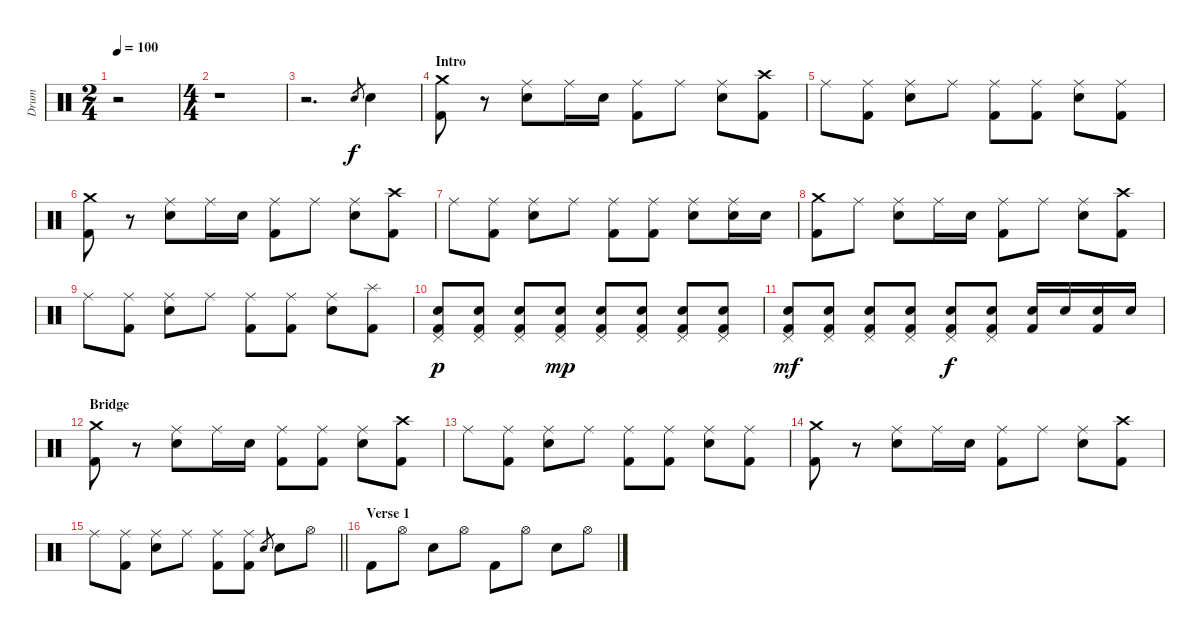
\track ("Drum" "Drum") {instrument percussion}
\staff {score}
\articulation defaults
\ts (2 4)
\tempo 100
\clef neutral
\ks c
r.2{dy f} |
\ts (4 4)
r.1 |
r.2{d} "Snare (hit) 2".8{gr} "Snare (hit) 2".4 |
\section ("" "Intro")
("Crash medium (hit)" "Kick (hit) 2").8 r.8 ("Ride (middle)" "Snare (hit) 2").8 "Ride (middle)".16 "Snare (hit) 2".16 ("Ride (middle)" "Kick (hit) 2").8 "Ride (middle)".8 ("Ride (middle)" "Snare (hit) 2").8 ("Crash high (hit)" "Kick (hit) 2").8 |
"Ride (middle)".8 ("Ride (middle)" "Kick (hit) 2").8 ("Ride (middle)" "Snare (hit) 2").8 "Ride (middle)".8 ("Ride (middle)" "Kick (hit) 2").8 ("Ride (middle)" "Kick (hit) 2").8 ("Ride (middle)" "Snare (hit) 2").8 ("Ride (middle)" "Kick (hit) 2").8 |
("Crash medium (hit)" "Kick (hit) 2").8 r.8 ("Ride (middle)" "Snare (hit) 2").8 "Ride (middle)".16 "Snare (hit) 2".16 ("Ride (middle)" "Kick (hit) 2").8 "Ride (middle)".8 ("Ride (middle)" "Snare (hit) 2").8 ("Crash high (hit)" "Kick (hit) 2").8 |
"Ride (middle)".8 ("Ride (middle)" "Kick (hit) 2").8 ("Ride (middle)" "Snare (hit) 2").8 "Ride (middle)".8 ("Ride (middle)" "Kick (hit) 2").8 ("Ride (middle)" "Kick (hit) 2").8 ("Ride (middle)" "Snare (hit) 2").8 ("Ride (middle)" "Snare (hit) 2").16 "Snare (hit) 2".16 |
("Crash medium (hit)" "Kick (hit) 2").8 "Ride (middle)".8 ("Ride (middle)" "Snare (hit) 2").8 "Ride (middle)".16 "Snare (hit) 2".16 ("Ride (middle)" "Kick (hit) 2").8 "Ride (middle)".8 ("Ride (middle)" "Snare (hit) 2").8 ("Crash high (hit)" "Kick (hit) 2").8 |
"Ride (middle)".8 ("Ride (middle)" "Kick (hit) 2").8 ("Ride (middle)" "Snare (hit) 2").8 "Ride (middle)".8 ("Ride (middle)" "Kick (hit) 2").8 ("Ride (middle)" "Kick (hit) 2").8 ("Ride (middle)" "Snare (hit) 2").8 ("Splash (hit)" "Kick (hit) 2").8 |
("Pedal Hi-Hat (hit)" "Snare (hit) 2" "Kick (hit) 2").8{dy p} ("Pedal Hi-Hat (hit)" "Snare (hit) 2" "Kick (hit) 2").8 ("Pedal Hi-Hat (hit)" "Snare (hit) 2" "Kick (hit) 2").8 ("Pedal Hi-Hat (hit)" "Snare (hit) 2" "Kick (hit) 2").8{dy mp} ("Pedal Hi-Hat (hit)" "Snare (hit) 2" "Kick (hit) 2").8 ("Pedal Hi-Hat (hit)" "Snare (hit) 2" "Kick (hit) 2").8 ("Pedal Hi-Hat (hit)" "Snare (hit) 2" "Kick (hit) 2").8 ("Pedal Hi-Hat (hit)" "Snare (hit) 2" "Kick (hit) 2").8 |
("Pedal Hi-Hat (hit)" "Snare (hit) 2" "Kick (hit) 2").8{dy mf} ("Pedal Hi-Hat (hit)" "Snare (hit) 2" "Kick (hit) 2").8 ("Pedal Hi-Hat (hit)" "Snare (hit) 2" "Kick (hit) 2").8 ("Pedal Hi-Hat (hit)" "Snare (hit) 2" "Kick (hit) 2").8 ("Pedal Hi-Hat (hit)" "Snare (hit) 2" "Kick (hit) 2").8{dy f} ("Pedal Hi-Hat (hit)" "Snare (hit) 2" "Kick (hit) 2").8 ("Snare (hit) 2" "Kick (hit) 2").16 "Snare (hit) 2".16 ("Snare (hit) 2" "Kick (hit) 2").16 "Snare (hit) 2".16 |
\section ("" "Bridge")
("Crash medium (hit)" "Kick (hit) 2").8 r.8 ("Ride (middle)" "Snare (hit) 2").8 "Ride (middle)".16 "Snare (hit) 2".16 ("Ride (middle)" "Kick (hit) 2").8 ("Ride (middle)" "Kick (hit) 2").8 ("Ride (middle)" "Snare (hit) 2").8 ("Crash high (hit)" "Kick (hit) 2").8 |
"Ride (middle)".8 ("Ride (middle)" "Kick (hit) 2").8 ("Ride (middle)" "Snare (hit) 2").8 "Ride (middle)".8 ("Ride (middle)" "Kick (hit) 2").8 ("Ride (middle)" "Kick (hit) 2").8 ("Ride (middle)" "Snare (hit) 2").8 ("Ride (middle)" "Kick (hit) 2").8 |
("Crash medium (hit)" "Kick (hit) 2").8 r.8 ("Ride (middle)" "Snare (hit) 2").8 "Ride (middle)".16 "Snare (hit) 2".16 ("Ride (middle)" "Kick (hit) 2").8 "Ride (middle)".8 ("Ride (middle)" "Snare (hit) 2").8 ("Crash high (hit)" "Kick (hit) 2").8 |
\barLineRight lightlight "Ride (middle)".8
("Ride (middle)" "Kick (hit) 2").8 ("Ride (middle)" "Snare (hit) 2").8 "Ride (middle)".8 ("Ride (middle)" "Kick (hit) 2").8 ("Ride (middle)" "Kick (hit) 2").8 "Snare (hit) 2".8{gr} "Snare (hit) 2".8 "Hi-Hat (open)".8 |
\section ("" "Verse 1")
"Kick (hit) 2".8 "Hi-Hat (open)".8 "Snare (hit) 2".8 "Hi-Hat (open)".8 "Kick (hit) 2".8 "Hi-Hat (open)".8 "Snare (hit) 2".8 "Hi-Hat (open)".8
